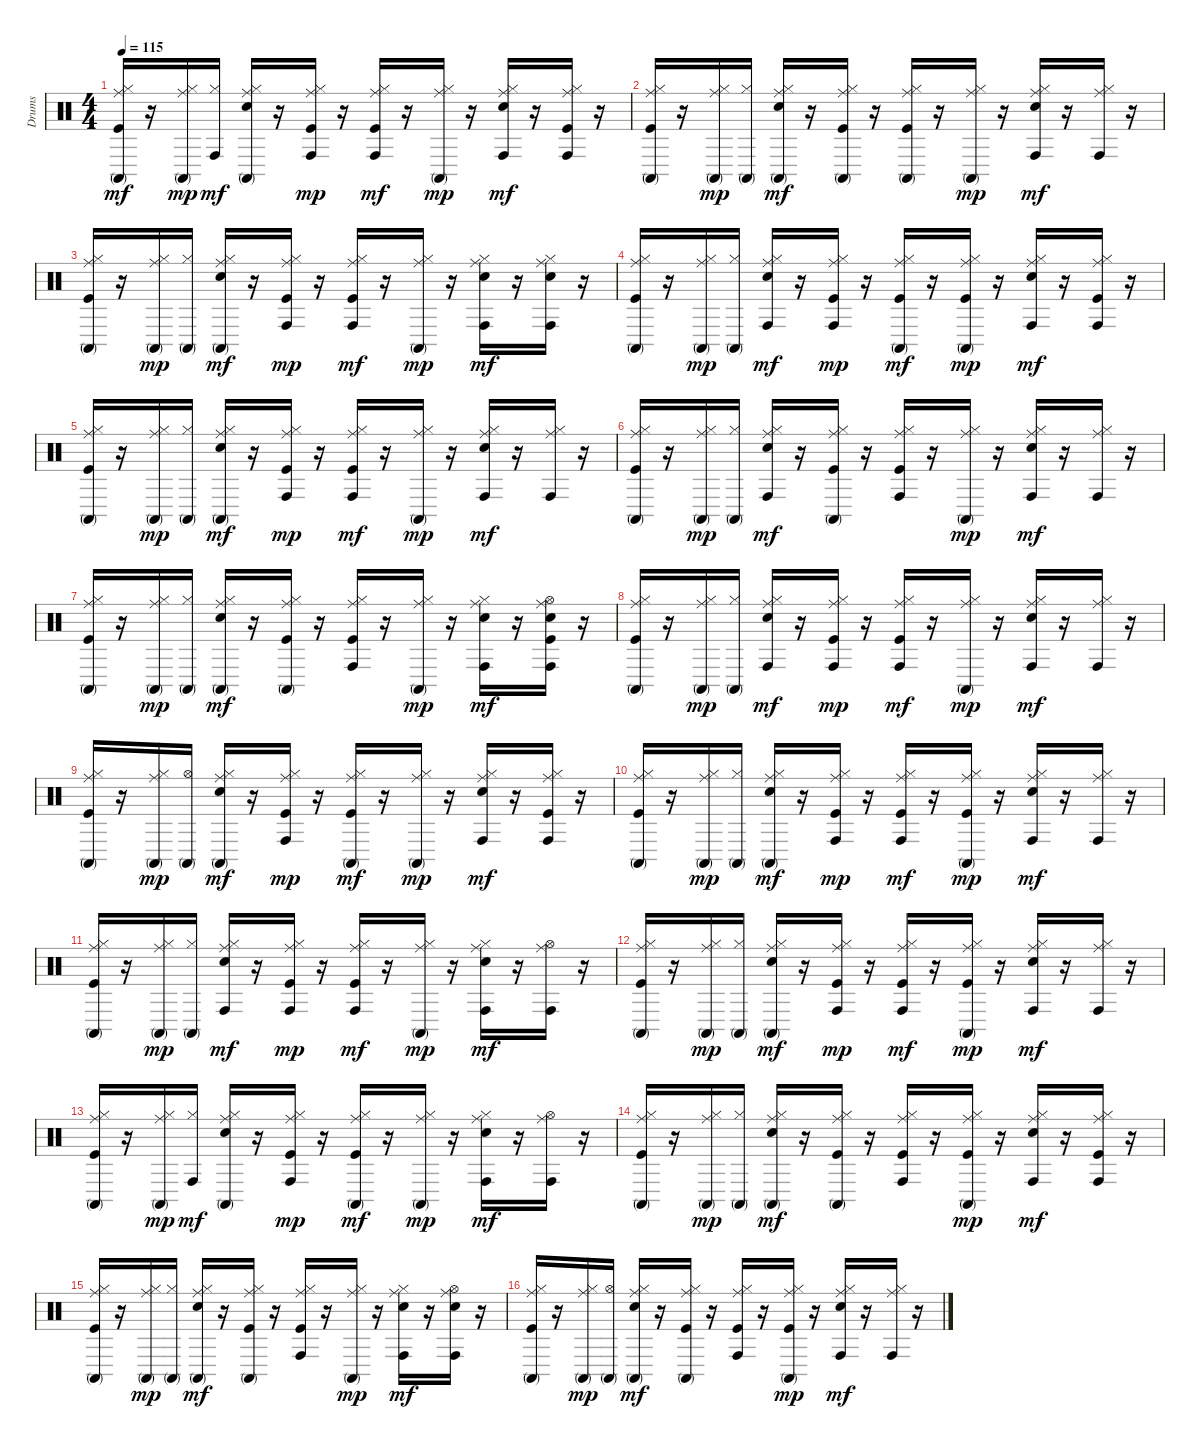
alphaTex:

\track ("Drums" "Drums") {instrument percussion}
\staff {score}
\articulation defaults
\ts (4 4)
\tempo 115
\clef neutral
\ks c
("Kick (hit)" "Hi-Hat (closed)" "Ride (middle)" "Conga high (mute)").16{dy mf} r.16 ("Hi-Hat (closed)" "Ride (middle)" "Conga high (mute)").16{dy mp} ("Hi-Hat (closed)" "Conga high (hit)").16{dy mf} ("Snare (hit) 2" "Hi-Hat (closed)" "Ride (middle)" "Conga high (mute)").16 r.16 ("Kick (hit)" "Hi-Hat (closed)" "Ride (middle)" "Conga high (hit)").16{dy mp} r.16 ("Kick (hit)" "Hi-Hat (closed)" "Ride (middle)" "Conga high (hit)").16{dy mf} r.16 ("Hi-Hat (closed)" "Ride (middle)" "Conga high (mute)").16{dy mp} r.16 ("Snare (hit) 2" "Hi-Hat (closed)" "Ride (middle)" "Conga high (hit)").16{dy mf} r.16 ("Kick (hit)" "Hi-Hat (closed)" "Ride (middle)" "Conga high (hit)").16 r.16 |
("Kick (hit)" "Hi-Hat (closed)" "Ride (middle)" "Conga high (mute)").16 r.16 ("Hi-Hat (closed)" "Ride (middle)" "Conga high (mute)").16{dy mp} ("Hi-Hat (closed)" "Conga high (mute)").16 ("Snare (hit) 2" "Hi-Hat (closed)" "Ride (middle)" "Conga high (mute)").16{dy mf} r.16 ("Kick (hit)" "Hi-Hat (closed)" "Ride (middle)" "Conga high (mute)").16 r.16 ("Kick (hit)" "Hi-Hat (closed)" "Ride (middle)" "Conga high (mute)").16 r.16 ("Hi-Hat (closed)" "Ride (middle)" "Conga high (mute)").16{dy mp} r.16 ("Snare (hit) 2" "Hi-Hat (closed)" "Ride (middle)" "Conga high (hit)").16{dy mf} r.16 ("Hi-Hat (closed)" "Ride (middle)" "Conga high (hit)").16 r.16 |
("Kick (hit)" "Hi-Hat (closed)" "Ride (middle)" "Conga high (mute)").16 r.16 ("Hi-Hat (closed)" "Ride (middle)" "Conga high (mute)").16{dy mp} ("Hi-Hat (closed)" "Conga high (mute)").16 ("Snare (hit) 2" "Hi-Hat (closed)" "Ride (middle)" "Conga high (mute)").16{dy mf} r.16 ("Kick (hit)" "Hi-Hat (closed)" "Ride (middle)" "Conga high (hit)").16{dy mp} r.16 ("Kick (hit)" "Hi-Hat (closed)" "Ride (middle)" "Conga high (hit)").16{dy mf} r.16 ("Hi-Hat (closed)" "Ride (middle)" "Conga high (mute)").16{dy mp} r.16 ("Snare (hit) 2" "Hi-Hat (closed)" "Ride (middle)" "Conga high (hit)").16{dy mf} r.16 ("Snare (hit) 2" "Hi-Hat (closed)" "Ride (middle)" "Conga high (hit)").16 r.16 |
("Kick (hit)" "Hi-Hat (closed)" "Ride (middle)" "Conga high (mute)").16 r.16 ("Hi-Hat (closed)" "Ride (middle)" "Conga high (mute)").16{dy mp} ("Hi-Hat (closed)" "Conga high (mute)").16 ("Snare (hit) 2" "Hi-Hat (closed)" "Ride (middle)" "Conga high (hit)").16{dy mf} r.16 ("Kick (hit)" "Hi-Hat (closed)" "Ride (middle)" "Conga high (hit)").16{dy mp} r.16 ("Kick (hit)" "Hi-Hat (closed)" "Ride (middle)" "Conga high (mute)").16{dy mf} r.16 ("Kick (hit)" "Hi-Hat (closed)" "Ride (middle)" "Conga high (mute)").16{dy mp} r.16 ("Snare (hit) 2" "Hi-Hat (closed)" "Ride (middle)" "Conga high (hit)").16{dy mf} r.16 ("Kick (hit)" "Hi-Hat (closed)" "Ride (middle)" "Conga high (hit)").16 r.16 |
("Kick (hit)" "Hi-Hat (closed)" "Ride (middle)" "Conga high (mute)").16 r.16 ("Hi-Hat (closed)" "Ride (middle)" "Conga high (mute)").16{dy mp} ("Hi-Hat (closed)" "Conga high (mute)").16 ("Snare (hit) 2" "Hi-Hat (closed)" "Ride (middle)" "Conga high (mute)").16{dy mf} r.16 ("Kick (hit)" "Hi-Hat (closed)" "Ride (middle)" "Conga high (hit)").16{dy mp} r.16 ("Kick (hit)" "Hi-Hat (closed)" "Ride (middle)" "Conga high (hit)").16{dy mf} r.16 ("Hi-Hat (closed)" "Ride (middle)" "Conga high (mute)").16{dy mp} r.16 ("Snare (hit) 2" "Hi-Hat (closed)" "Ride (middle)" "Conga high (hit)").16{dy mf} r.16 ("Hi-Hat (closed)" "Ride (middle)" "Conga high (hit)").16 r.16 |
("Kick (hit)" "Hi-Hat (closed)" "Ride (middle)" "Conga high (mute)").16 r.16 ("Hi-Hat (closed)" "Ride (middle)" "Conga high (mute)").16{dy mp} ("Hi-Hat (closed)" "Conga high (mute)").16 ("Snare (hit) 2" "Hi-Hat (closed)" "Ride (middle)" "Conga high (hit)").16{dy mf} r.16 ("Kick (hit)" "Hi-Hat (closed)" "Ride (middle)" "Conga high (mute)").16 r.16 ("Kick (hit)" "Hi-Hat (closed)" "Ride (middle)" "Conga high (hit)").16 r.16 ("Hi-Hat (closed)" "Ride (middle)" "Conga high (mute)").16{dy mp} r.16 ("Snare (hit) 2" "Hi-Hat (closed)" "Ride (middle)" "Conga high (hit)").16{dy mf} r.16 ("Hi-Hat (closed)" "Ride (middle)" "Conga high (hit)").16 r.16 |
("Kick (hit)" "Hi-Hat (closed)" "Ride (middle)" "Conga high (mute)").16 r.16 ("Hi-Hat (closed)" "Ride (middle)" "Conga high (mute)").16{dy mp} ("Hi-Hat (closed)" "Conga high (mute)").16 ("Snare (hit) 2" "Hi-Hat (closed)" "Ride (middle)" "Conga high (mute)").16{dy mf} r.16 ("Kick (hit)" "Hi-Hat (closed)" "Ride (middle)" "Conga high (mute)").16 r.16 ("Kick (hit)" "Hi-Hat (closed)" "Ride (middle)" "Conga high (hit)").16 r.16 ("Hi-Hat (closed)" "Ride (middle)" "Conga high (mute)").16{dy mp} r.16 ("Snare (hit) 2" "Hi-Hat (closed)" "Ride (middle)" "Conga high (hit)").16{dy mf} r.16 ("Kick (hit)" "Snare (hit) 2" "Hi-Hat (open)" "Ride (middle)" "Conga high (hit)").16 r.16 |
("Kick (hit)" "Hi-Hat (closed)" "Ride (middle)" "Conga high (mute)").16 r.16 ("Hi-Hat (closed)" "Ride (middle)" "Conga high (mute)").16{dy mp} ("Hi-Hat (closed)" "Conga high (mute)").16 ("Snare (hit) 2" "Hi-Hat (closed)" "Ride (middle)" "Conga high (hit)").16{dy mf} r.16 ("Kick (hit)" "Hi-Hat (closed)" "Ride (middle)" "Conga high (hit)").16{dy mp} r.16 ("Kick (hit)" "Hi-Hat (closed)" "Ride (middle)" "Conga high (hit)").16{dy mf} r.16 ("Hi-Hat (closed)" "Ride (middle)" "Conga high (mute)").16{dy mp} r.16 ("Snare (hit) 2" "Hi-Hat (closed)" "Ride (middle)" "Conga high (hit)").16{dy mf} r.16 ("Hi-Hat (closed)" "Ride (middle)" "Conga high (hit)").16 r.16 |
("Kick (hit)" "Hi-Hat (closed)" "Ride (middle)" "Conga high (mute)").16 r.16 ("Hi-Hat (closed)" "Ride (middle)" "Conga high (mute)").16{dy mp} ("Hi-Hat (open)" "Conga high (mute)").16 ("Snare (hit) 2" "Hi-Hat (closed)" "Ride (middle)" "Conga high (mute)").16{dy mf} r.16 ("Kick (hit)" "Hi-Hat (closed)" "Ride (middle)" "Conga high (hit)").16{dy mp} r.16 ("Kick (hit)" "Hi-Hat (closed)" "Ride (middle)" "Conga high (mute)").16{dy mf} r.16 ("Hi-Hat (closed)" "Ride (middle)" "Conga high (mute)").16{dy mp} r.16 ("Snare (hit) 2" "Hi-Hat (closed)" "Ride (middle)" "Conga high (hit)").16{dy mf} r.16 ("Kick (hit)" "Hi-Hat (closed)" "Ride (middle)" "Conga high (hit)").16 r.16 |
("Kick (hit)" "Hi-Hat (closed)" "Ride (middle)" "Conga high (mute)").16 r.16 ("Hi-Hat (closed)" "Ride (middle)" "Conga high (mute)").16{dy mp} ("Hi-Hat (closed)" "Conga high (mute)").16 ("Snare (hit) 2" "Hi-Hat (closed)" "Ride (middle)" "Conga high (mute)").16{dy mf} r.16 ("Kick (hit)" "Hi-Hat (closed)" "Ride (middle)" "Conga high (hit)").16{dy mp} r.16 ("Kick (hit)" "Hi-Hat (closed)" "Ride (middle)" "Conga high (hit)").16{dy mf} r.16 ("Kick (hit)" "Hi-Hat (closed)" "Ride (middle)" "Conga high (mute)").16{dy mp} r.16 ("Snare (hit) 2" "Hi-Hat (closed)" "Ride (middle)" "Conga high (hit)").16{dy mf} r.16 ("Hi-Hat (closed)" "Ride (middle)" "Conga high (hit)").16 r.16 |
("Kick (hit)" "Hi-Hat (closed)" "Ride (middle)" "Conga high (mute)").16 r.16 ("Hi-Hat (closed)" "Ride (middle)" "Conga high (mute)").16{dy mp} ("Hi-Hat (closed)" "Conga high (mute)").16 ("Snare (hit) 2" "Hi-Hat (closed)" "Ride (middle)" "Conga high (hit)").16{dy mf} r.16 ("Kick (hit)" "Hi-Hat (closed)" "Ride (middle)" "Conga high (hit)").16{dy mp} r.16 ("Kick (hit)" "Hi-Hat (closed)" "Ride (middle)" "Conga high (hit)").16{dy mf} r.16 ("Hi-Hat (closed)" "Ride (middle)" "Conga high (mute)").16{dy mp} r.16 ("Snare (hit) 2" "Hi-Hat (closed)" "Ride (middle)" "Conga high (hit)").16{dy mf} r.16 ("Hi-Hat (open)" "Ride (middle)" "Conga high (hit)").16 r.16 |
("Kick (hit)" "Hi-Hat (closed)" "Ride (middle)" "Conga high (mute)").16 r.16 ("Hi-Hat (closed)" "Ride (middle)" "Conga high (mute)").16{dy mp} ("Hi-Hat (closed)" "Conga high (mute)").16 ("Snare (hit) 2" "Hi-Hat (closed)" "Ride (middle)" "Conga high (mute)").16{dy mf} r.16 ("Kick (hit)" "Hi-Hat (closed)" "Ride (middle)" "Conga high (hit)").16{dy mp} r.16 ("Kick (hit)" "Hi-Hat (closed)" "Ride (middle)" "Conga high (hit)").16{dy mf} r.16 ("Kick (hit)" "Hi-Hat (closed)" "Ride (middle)" "Conga high (mute)").16{dy mp} r.16 ("Snare (hit) 2" "Hi-Hat (closed)" "Ride (middle)" "Conga high (hit)").16{dy mf} r.16 ("Hi-Hat (closed)" "Ride (middle)" "Conga high (hit)").16 r.16 |
("Kick (hit)" "Hi-Hat (closed)" "Ride (middle)" "Conga high (mute)").16 r.16 ("Hi-Hat (closed)" "Ride (middle)" "Conga high (mute)").16{dy mp} ("Hi-Hat (closed)" "Conga high (hit)").16{dy mf} ("Snare (hit) 2" "Hi-Hat (closed)" "Ride (middle)" "Conga high (mute)").16 r.16 ("Kick (hit)" "Hi-Hat (closed)" "Ride (middle)" "Conga high (hit)").16{dy mp} r.16 ("Kick (hit)" "Hi-Hat (closed)" "Ride (middle)" "Conga high (mute)").16{dy mf} r.16 ("Hi-Hat (closed)" "Ride (middle)" "Conga high (mute)").16{dy mp} r.16 ("Snare (hit) 2" "Hi-Hat (closed)" "Ride (middle)" "Conga high (hit)").16{dy mf} r.16 ("Hi-Hat (open)" "Ride (middle)" "Conga high (hit)").16 r.16 |
("Kick (hit)" "Hi-Hat (closed)" "Ride (middle)" "Conga high (mute)").16 r.16 ("Hi-Hat (closed)" "Ride (middle)" "Conga high (mute)").16{dy mp} ("Hi-Hat (closed)" "Conga high (mute)").16 ("Snare (hit) 2" "Hi-Hat (closed)" "Ride (middle)" "Conga high (mute)").16{dy mf} r.16 ("Kick (hit)" "Hi-Hat (closed)" "Ride (middle)" "Conga high (mute)").16 r.16 ("Kick (hit)" "Hi-Hat (closed)" "Ride (middle)" "Conga high (hit)").16 r.16 ("Kick (hit)" "Hi-Hat (closed)" "Ride (middle)" "Conga high (mute)").16{dy mp} r.16 ("Snare (hit) 2" "Hi-Hat (closed)" "Ride (middle)" "Conga high (hit)").16{dy mf} r.16 ("Kick (hit)" "Hi-Hat (closed)" "Ride (middle)" "Conga high (hit)").16 r.16 |
("Kick (hit)" "Hi-Hat (closed)" "Ride (middle)" "Conga high (mute)").16 r.16 ("Hi-Hat (closed)" "Ride (middle)" "Conga high (mute)").16{dy mp} ("Hi-Hat (closed)" "Conga high (mute)").16 ("Snare (hit) 2" "Hi-Hat (closed)" "Ride (middle)" "Conga high (mute)").16{dy mf} r.16 ("Kick (hit)" "Hi-Hat (closed)" "Ride (middle)" "Conga high (mute)").16 r.16 ("Kick (hit)" "Hi-Hat (closed)" "Ride (middle)" "Conga high (hit)").16 r.16 ("Hi-Hat (closed)" "Ride (middle)" "Conga high (mute)").16{dy mp} r.16 ("Snare (hit) 2" "Hi-Hat (closed)" "Ride (middle)" "Conga high (hit)").16{dy mf} r.16 ("Snare (hit) 2" "Hi-Hat (open)" "Ride (middle)" "Conga high (hit)").16 r.16 |
("Kick (hit)" "Hi-Hat (closed)" "Ride (middle)" "Conga high (mute)").16 r.16 ("Hi-Hat (closed)" "Ride (middle)" "Conga high (mute)").16{dy mp} ("Hi-Hat (open)" "Conga high (mute)").16 ("Snare (hit) 2" "Hi-Hat (closed)" "Ride (middle)" "Conga high (mute)").16{dy mf} r.16 ("Kick (hit)" "Hi-Hat (closed)" "Ride (middle)" "Conga high (mute)").16 r.16 ("Kick (hit)" "Hi-Hat (closed)" "Ride (middle)" "Conga high (hit)").16 r.16 ("Kick (hit)" "Hi-Hat (closed)" "Ride (middle)" "Conga high (mute)").16{dy mp} r.16 ("Snare (hit) 2" "Hi-Hat (closed)" "Ride (middle)" "Conga high (hit)").16{dy mf} r.16 ("Hi-Hat (closed)" "Ride (middle)" "Conga high (hit)").16 r.16
